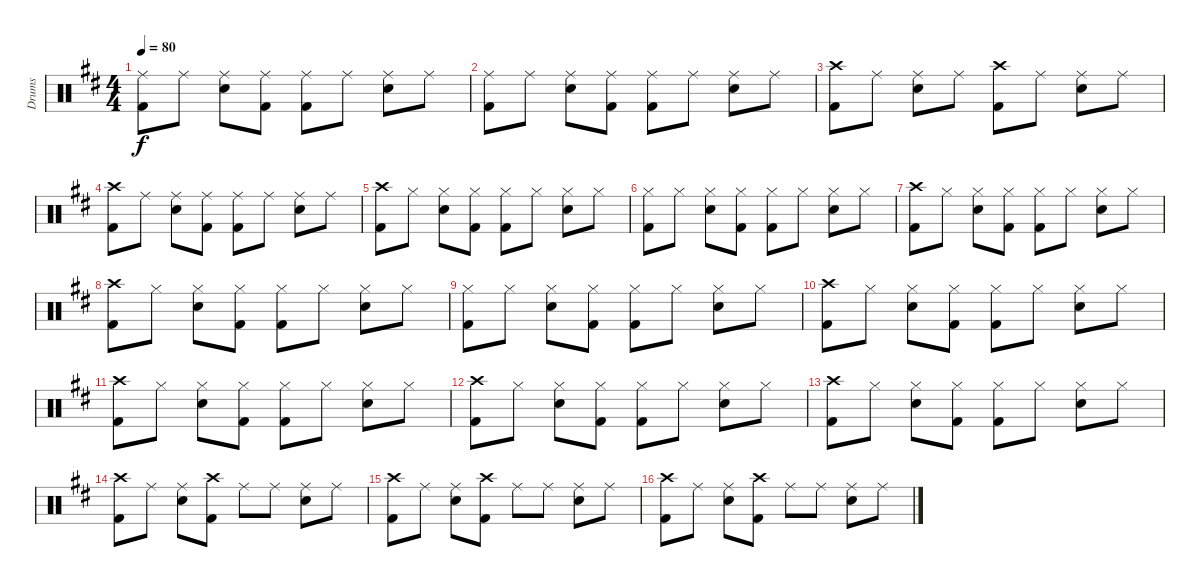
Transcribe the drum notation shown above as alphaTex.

\track ("Drums" "Drums") {instrument percussion}
\staff {score}
\articulation defaults
\ts (4 4)
\tempo 80
\clef neutral
\ks d
("Ride (middle)" "Kick (hit) 2").8{dy f} "Ride (middle)".8 ("Ride (middle)" "Snare (hit) 2").8 ("Ride (middle)" "Kick (hit) 2").8 ("Ride (middle)" "Kick (hit) 2").8 "Ride (middle)".8 ("Ride (middle)" "Snare (hit) 2").8 "Ride (middle)".8 |
("Ride (middle)" "Kick (hit) 2").8 "Ride (middle)".8 ("Ride (middle)" "Snare (hit) 2").8 ("Ride (middle)" "Kick (hit) 2").8 ("Ride (middle)" "Kick (hit) 2").8 "Ride (middle)".8 ("Ride (middle)" "Snare (hit) 2").8 "Ride (middle)".8 |
("Crash high (hit)" "Kick (hit) 2").8 "Ride (middle)".8 ("Ride (middle)" "Snare (hit) 2").8 "Ride (middle)".8 ("Crash high (hit)" "Kick (hit) 2").8 "Ride (middle)".8 ("Ride (middle)" "Snare (hit) 2").8 "Ride (middle)".8 |
("Crash high (hit)" "Kick (hit) 2").8 "Ride (middle)".8 ("Ride (middle)" "Snare (hit) 2").8 ("Ride (middle)" "Kick (hit) 2").8 ("Ride (middle)" "Kick (hit) 2").8 "Ride (middle)".8 ("Ride (middle)" "Snare (hit) 2").8 "Ride (middle)".8 |
("Crash high (hit)" "Kick (hit) 2").8 "Hi-Hat (closed)".8 ("Hi-Hat (closed)" "Snare (hit) 2").8 ("Hi-Hat (closed)" "Kick (hit) 2").8 ("Hi-Hat (closed)" "Kick (hit) 2").8 "Hi-Hat (closed)".8 ("Hi-Hat (closed)" "Snare (hit) 2").8 "Hi-Hat (closed)".8 |
("Hi-Hat (closed)" "Kick (hit) 2").8 "Hi-Hat (closed)".8 ("Hi-Hat (closed)" "Snare (hit) 2").8 ("Hi-Hat (closed)" "Kick (hit) 2").8 ("Hi-Hat (closed)" "Kick (hit) 2").8 "Hi-Hat (closed)".8 ("Hi-Hat (closed)" "Snare (hit) 2").8 "Hi-Hat (closed)".8 |
("Crash high (hit)" "Kick (hit) 2").8 "Hi-Hat (closed)".8 ("Hi-Hat (closed)" "Snare (hit) 2").8 ("Hi-Hat (closed)" "Kick (hit) 2").8 ("Hi-Hat (closed)" "Kick (hit) 2").8 "Hi-Hat (closed)".8 ("Hi-Hat (closed)" "Snare (hit) 2").8 "Hi-Hat (closed)".8 |
("Crash high (hit)" "Kick (hit) 2").8 "Hi-Hat (closed)".8 ("Hi-Hat (closed)" "Snare (hit) 2").8 ("Hi-Hat (closed)" "Kick (hit) 2").8 ("Hi-Hat (closed)" "Kick (hit) 2").8 "Hi-Hat (closed)".8 ("Hi-Hat (closed)" "Snare (hit) 2").8 "Hi-Hat (closed)".8 |
("Hi-Hat (closed)" "Kick (hit) 2").8 "Hi-Hat (closed)".8 ("Hi-Hat (closed)" "Snare (hit) 2").8 ("Hi-Hat (closed)" "Kick (hit) 2").8 ("Hi-Hat (closed)" "Kick (hit) 2").8 "Hi-Hat (closed)".8 ("Hi-Hat (closed)" "Snare (hit) 2").8 "Hi-Hat (closed)".8 |
("Crash high (hit)" "Kick (hit) 2").8 "Hi-Hat (closed)".8 ("Hi-Hat (closed)" "Snare (hit) 2").8 ("Hi-Hat (closed)" "Kick (hit) 2").8 ("Hi-Hat (closed)" "Kick (hit) 2").8 "Hi-Hat (closed)".8 ("Hi-Hat (closed)" "Snare (hit) 2").8 "Hi-Hat (closed)".8 |
("Crash high (hit)" "Kick (hit) 2").8 "Hi-Hat (closed)".8 ("Hi-Hat (closed)" "Snare (hit) 2").8 ("Hi-Hat (closed)" "Kick (hit) 2").8 ("Hi-Hat (closed)" "Kick (hit) 2").8 "Hi-Hat (closed)".8 ("Hi-Hat (closed)" "Snare (hit) 2").8 "Hi-Hat (closed)".8 |
("Crash high (hit)" "Kick (hit) 2").8 "Hi-Hat (closed)".8 ("Hi-Hat (closed)" "Snare (hit) 2").8 ("Hi-Hat (closed)" "Kick (hit) 2").8 ("Hi-Hat (closed)" "Kick (hit) 2").8 "Hi-Hat (closed)".8 ("Hi-Hat (closed)" "Snare (hit) 2").8 "Hi-Hat (closed)".8 |
("Crash high (hit)" "Kick (hit) 2").8 "Hi-Hat (closed)".8 ("Hi-Hat (closed)" "Snare (hit) 2").8 ("Hi-Hat (closed)" "Kick (hit) 2").8 ("Hi-Hat (closed)" "Kick (hit) 2").8 "Hi-Hat (closed)".8 ("Hi-Hat (closed)" "Snare (hit) 2").8 "Hi-Hat (closed)".8 |
("Crash high (hit)" "Kick (hit) 2").8 "Ride (middle)".8 ("Ride (middle)" "Snare (hit) 2").8 ("Crash high (hit)" "Kick (hit) 2").8 "Ride (middle)".8 "Ride (middle)".8 ("Ride (middle)" "Snare (hit) 2").8 "Ride (middle)".8 |
("Crash high (hit)" "Kick (hit) 2").8 "Ride (middle)".8 ("Ride (middle)" "Snare (hit) 2").8 ("Crash high (hit)" "Kick (hit) 2").8 "Ride (middle)".8 "Ride (middle)".8 ("Ride (middle)" "Snare (hit) 2").8 "Ride (middle)".8 |
("Crash high (hit)" "Kick (hit) 2").8 "Ride (middle)".8 ("Ride (middle)" "Snare (hit) 2").8 ("Crash high (hit)" "Kick (hit) 2").8 "Ride (middle)".8 "Ride (middle)".8 ("Ride (middle)" "Snare (hit) 2").8 "Ride (middle)".8
